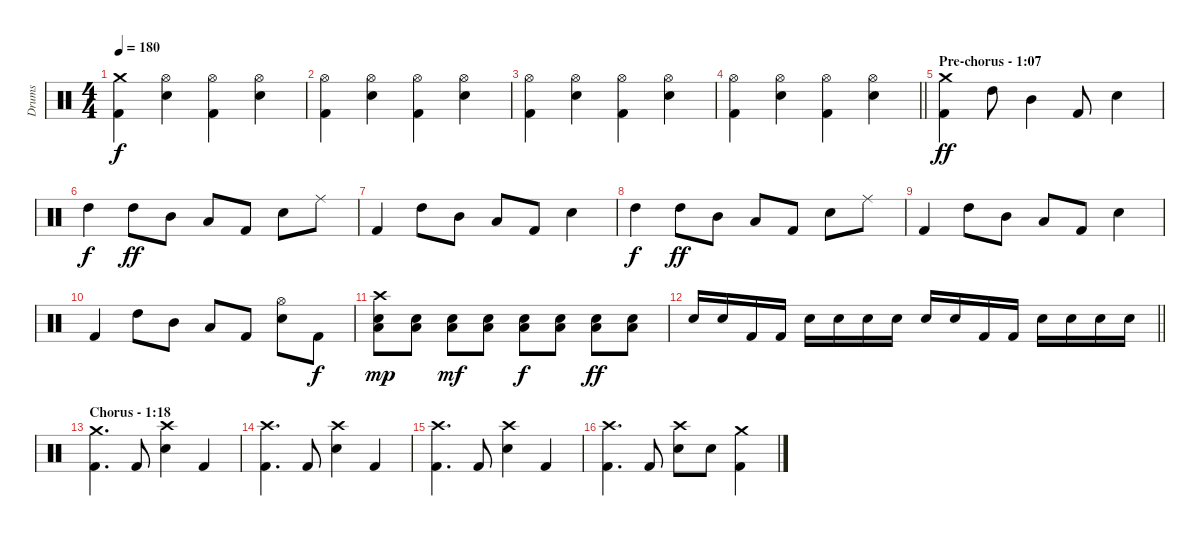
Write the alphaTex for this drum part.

\track ("Drums" "Drums") {instrument percussion}
\staff {score}
\articulation defaults
\ts (4 4)
\tempo 180
\clef neutral
\ks c
("Crash medium (hit)" "Kick (hit) 2").4{dy f} ("Hi-Hat (open)" "Electric Snare (hit)").4 ("Hi-Hat (open)" "Kick (hit) 2").4 ("Hi-Hat (open)" "Electric Snare (hit)").4 |
("Hi-Hat (open)" "Kick (hit) 2").4 ("Hi-Hat (open)" "Electric Snare (hit)").4 ("Hi-Hat (open)" "Kick (hit) 2").4 ("Hi-Hat (open)" "Electric Snare (hit)").4 |
("Hi-Hat (open)" "Kick (hit) 2").4 ("Hi-Hat (open)" "Electric Snare (hit)").4 ("Hi-Hat (open)" "Kick (hit) 2").4 ("Hi-Hat (open)" "Electric Snare (hit)").4 |
\barLineRight lightlight
("Hi-Hat (open)" "Kick (hit) 2").4 ("Hi-Hat (open)" "Electric Snare (hit)").4 ("Hi-Hat (open)" "Kick (hit) 2").4 ("Hi-Hat (open)" "Electric Snare (hit)").4 |
\section ("" "Pre-chorus - 1:07")
("Crash medium (hit)" "Kick (hit) 2").4{dy ff} "High Tom (hit)".8 "Mid Tom (hit)".4 "Kick (hit) 2".8 "Electric Snare (hit)".4 |
"High Tom (hit)".4{dy f} "High Tom (hit)".8{dy ff} "Mid Tom (hit)".8 "Low Tom (hit)".8 "Kick (hit) 2".8 "Electric Snare (hit)".8 "Ride (middle)".8 |
"Kick (hit) 2".4 "High Tom (hit)".8 "Mid Tom (hit)".8 "Low Tom (hit)".8 "Kick (hit) 2".8 "Electric Snare (hit)".4 |
"High Tom (hit)".4{dy f} "High Tom (hit)".8{dy ff} "Mid Tom (hit)".8 "Low Tom (hit)".8 "Kick (hit) 2".8 "Electric Snare (hit)".8 "Ride (middle)".8 |
"Kick (hit) 2".4 "High Tom (hit)".8 "Mid Tom (hit)".8 "Low Tom (hit)".8 "Kick (hit) 2".8 "Electric Snare (hit)".4 |
"Kick (hit) 2".4 "High Tom (hit)".8 "Mid Tom (hit)".8 "Low Tom (hit)".8 "Kick (hit) 2".8 ("Hi-Hat (open)" "Electric Snare (hit)").8 "Kick (hit) 2".8{dy f} |
("Crash high (hit)" "Electric Snare (hit)" "Low Tom (hit)").8{dy mp} ("Electric Snare (hit)" "Low Tom (hit)").8 ("Electric Snare (hit)" "Low Tom (hit)").8{dy mf} ("Electric Snare (hit)" "Low Tom (hit)").8 ("Electric Snare (hit)" "Low Tom (hit)").8{dy f} ("Electric Snare (hit)" "Low Tom (hit)").8 ("Electric Snare (hit)" "Low Tom (hit)").8{dy ff} ("Electric Snare (hit)" "Low Tom (hit)").8 |
\barLineRight lightlight "Electric Snare (hit)".16 "Electric Snare (hit)".16 "Kick (hit) 2".16 "Kick (hit) 2".16 "Electric Snare (hit)".16 "Electric Snare (hit)".16 "Electric Snare (hit)".16 "Electric Snare (hit)".16 "Electric Snare (hit)".16 "Electric Snare (hit)".16 "Kick (hit) 2".16 "Kick (hit) 2".16 "Electric Snare (hit)".16 "Electric Snare (hit)".16 "Electric Snare (hit)".16 "Electric Snare (hit)".16
|
\section ("" "Chorus - 1:18")
("Crash medium (hit)" "Kick (hit) 2").4{d} "Kick (hit) 2".8 ("Crash high (hit)" "Electric Snare (hit)").4 "Kick (hit) 2".4 |
("Crash high (hit)" "Kick (hit) 2").4{d} "Kick (hit) 2".8 ("Crash high (hit)" "Electric Snare (hit)").4 "Kick (hit) 2".4 |
("Crash high (hit)" "Kick (hit) 2").4{d} "Kick (hit) 2".8 ("Crash high (hit)" "Electric Snare (hit)").4 "Kick (hit) 2".4 |
("Crash high (hit)" "Kick (hit) 2").4{d} "Kick (hit) 2".8 ("Crash high (hit)" "Electric Snare (hit)").8 "Electric Snare (hit)".8 ("Crash medium (hit)" "Kick (hit) 2").4
